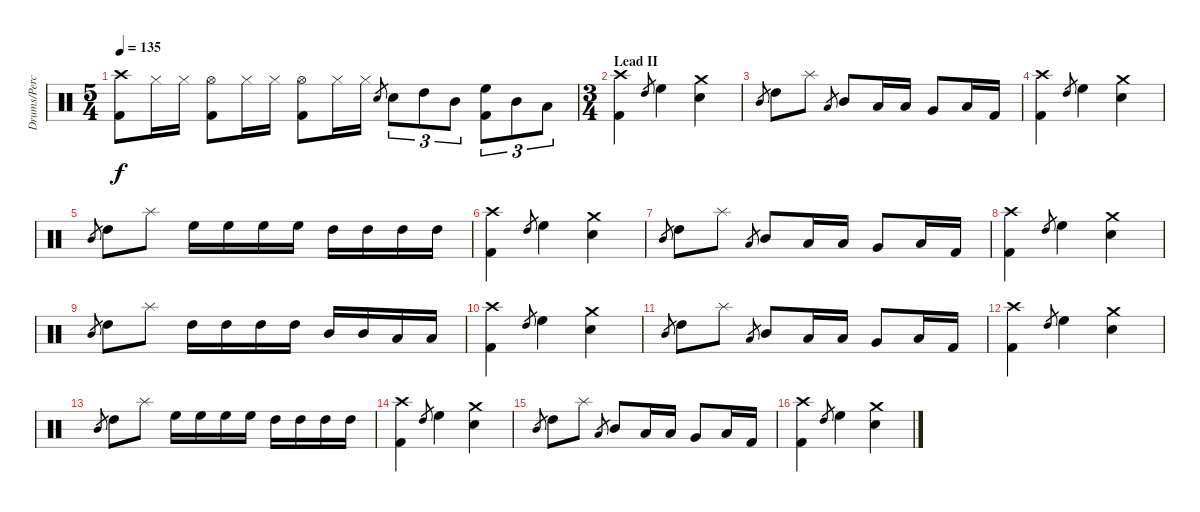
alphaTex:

\track ("Drums/Percussion" "Drums/Perc") {instrument percussion}
\staff {score}
\articulation defaults
\ts (5 4)
\tempo 135
\clef neutral
\ks c
("Crash high (hit)" "Kick (hit) 2").8{dy f} "Hi-Hat (closed)".16 "Hi-Hat (closed)".16 ("Hi-Hat (open)" "Kick (hit) 2").8 "Hi-Hat (closed)".16 "Hi-Hat (closed)".16 ("Hi-Hat (open)" "Kick (hit) 2").8 "Hi-Hat (closed)".16 "Hi-Hat (closed)".16 "Snare (hit) 2".8{gr} "Snare (hit) 2".8{tu (3 2)} "High Tom (hit)".8{tu (3 2)} "Mid Tom (hit)".8{tu (3 2)} ("High Floor Tom (hit)" "Kick (hit) 2").8{tu (3 2)} "Mid Tom (hit)".8{tu (3 2)} "Low Tom (hit)".8{tu (3 2)} |
\ts (3 4)
\section ("" "Lead II")
("Crash high (hit)" "Kick (hit) 2").4 "High Tom (hit)".8{gr} "High Floor Tom (hit)".4 ("Crash medium (hit)" "Snare (hit) 2").4 |
"Mid Tom (hit)".8{gr} "High Tom (hit)".8 "Splash (hit)".8 "Low Tom (hit)".8{gr} "Mid Tom (hit)".8 "Low Tom (hit)".16 "Low Tom (hit)".16 "Very Low Tom (hit)".8 "Low Floor Tom (hit)".16 "Kick (hit) 2".16 |
("Crash high (hit)" "Kick (hit) 2").4 "High Tom (hit)".8{gr} "High Floor Tom (hit)".4 ("Crash medium (hit)" "Snare (hit) 2").4 |
"Mid Tom (hit)".8{gr} "High Tom (hit)".8 "Splash (hit)".8 "High Floor Tom (hit)".16 "High Floor Tom (hit)".16 "High Floor Tom (hit)".16 "High Floor Tom (hit)".16 "High Tom (hit)".16 "High Tom (hit)".16 "High Tom (hit)".16 "High Tom (hit)".16 |
("Crash high (hit)" "Kick (hit) 2").4 "High Tom (hit)".8{gr} "High Floor Tom (hit)".4 ("Crash medium (hit)" "Snare (hit) 2").4 |
"Mid Tom (hit)".8{gr} "High Tom (hit)".8 "Splash (hit)".8 "Low Tom (hit)".8{gr} "Mid Tom (hit)".8 "Low Tom (hit)".16 "Low Tom (hit)".16 "Very Low Tom (hit)".8 "Low Floor Tom (hit)".16 "Kick (hit) 2".16 |
("Crash high (hit)" "Kick (hit) 2").4 "High Tom (hit)".8{gr} "High Floor Tom (hit)".4 ("Crash medium (hit)" "Snare (hit) 2").4 |
"Mid Tom (hit)".8{gr} "High Tom (hit)".8 "Splash (hit)".8 "High Tom (hit)".16 "High Tom (hit)".16 "High Tom (hit)".16 "High Tom (hit)".16 "Mid Tom (hit)".16 "Mid Tom (hit)".16 "Low Tom (hit)".16 "Low Tom (hit)".16 |
("Crash high (hit)" "Kick (hit) 2").4 "High Tom (hit)".8{gr} "High Floor Tom (hit)".4 ("Crash medium (hit)" "Snare (hit) 2").4 |
"Mid Tom (hit)".8{gr} "High Tom (hit)".8 "Splash (hit)".8 "Low Tom (hit)".8{gr} "Mid Tom (hit)".8 "Low Tom (hit)".16 "Low Tom (hit)".16 "Very Low Tom (hit)".8 "Low Floor Tom (hit)".16 "Kick (hit) 2".16 |
("Crash high (hit)" "Kick (hit) 2").4 "High Tom (hit)".8{gr} "High Floor Tom (hit)".4 ("Crash medium (hit)" "Snare (hit) 2").4 |
"Mid Tom (hit)".8{gr} "High Tom (hit)".8 "Splash (hit)".8 "High Floor Tom (hit)".16 "High Floor Tom (hit)".16 "High Floor Tom (hit)".16 "High Floor Tom (hit)".16 "High Tom (hit)".16 "High Tom (hit)".16 "High Tom (hit)".16 "High Tom (hit)".16 |
("Crash high (hit)" "Kick (hit) 2").4 "High Tom (hit)".8{gr} "High Floor Tom (hit)".4 ("Crash medium (hit)" "Snare (hit) 2").4 |
"Mid Tom (hit)".8{gr} "High Tom (hit)".8 "Splash (hit)".8 "Low Tom (hit)".8{gr} "Mid Tom (hit)".8 "Low Tom (hit)".16 "Low Tom (hit)".16 "Very Low Tom (hit)".8 "Low Floor Tom (hit)".16 "Kick (hit) 2".16 |
("Crash high (hit)" "Kick (hit) 2").4 "High Tom (hit)".8{gr} "High Floor Tom (hit)".4 ("Crash medium (hit)" "Snare (hit) 2").4
